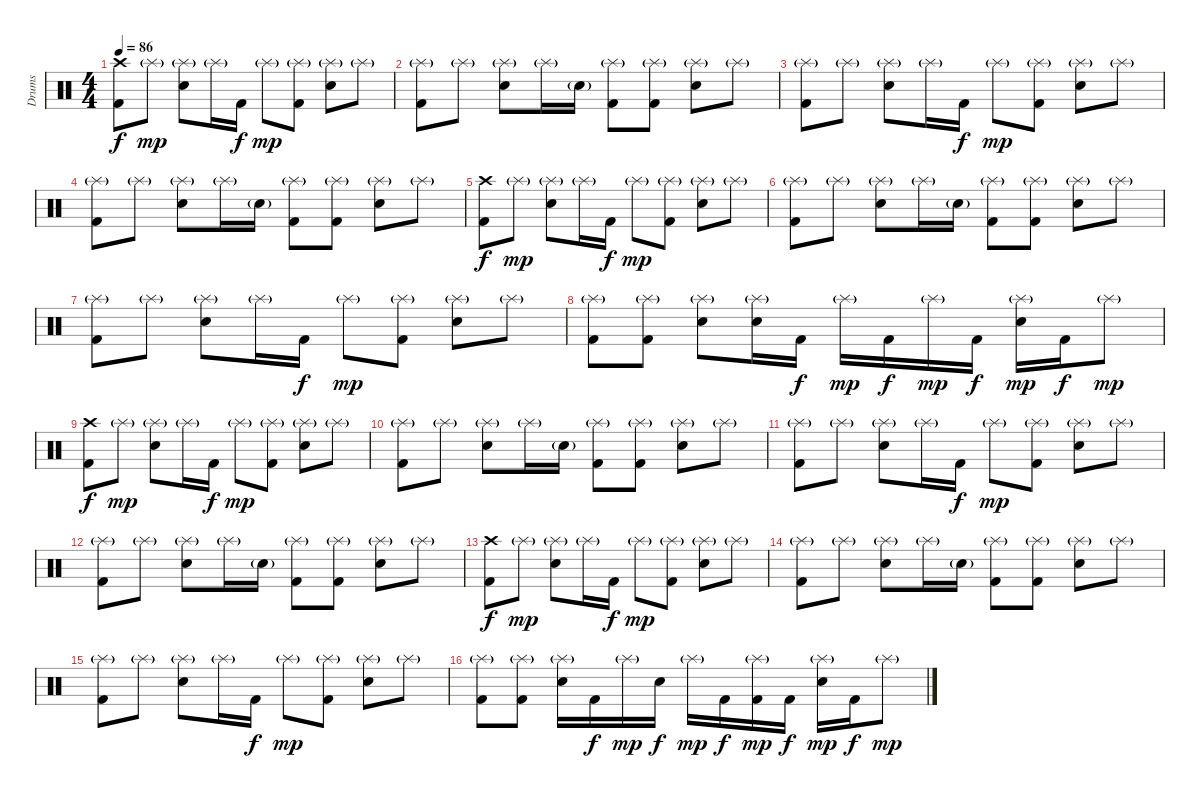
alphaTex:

\track ("Drums" "Drums") {instrument percussion}
\staff {score}
\articulation defaults
\ts (4 4)
\tempo 86
\clef neutral
\ks c
("Crash high (hit)" "Kick (hit) 2").8{dy f} "Splash (hit)"{g}.8{dy mp} ("Splash (hit)"{g} "Snare (hit) 2").8 "Splash (hit)"{g}.16 "Kick (hit) 2".16{dy f} "Splash (hit)"{g}.8{dy mp} ("Splash (hit)"{g} "Kick (hit) 2").8 ("Splash (hit)"{g} "Snare (hit) 2").8 "Splash (hit)"{g}.8 |
("Splash (hit)"{g} "Kick (hit) 2").8 "Splash (hit)"{g}.8 ("Splash (hit)"{g} "Snare (hit) 2").8 "Splash (hit)"{g}.16 "Snare (hit) 2"{g}.16 ("Splash (hit)"{g} "Kick (hit) 2").8 ("Splash (hit)"{g} "Kick (hit) 2").8 ("Splash (hit)"{g} "Snare (hit) 2").8 "Splash (hit)"{g}.8 |
("Splash (hit)"{g} "Kick (hit) 2").8 "Splash (hit)"{g}.8 ("Splash (hit)"{g} "Snare (hit) 2").8 "Splash (hit)"{g}.16 "Kick (hit) 2".16{dy f} "Splash (hit)"{g}.8{dy mp} ("Splash (hit)"{g} "Kick (hit) 2").8 ("Splash (hit)"{g} "Snare (hit) 2").8 "Splash (hit)"{g}.8 |
("Splash (hit)"{g} "Kick (hit) 2").8 "Splash (hit)"{g}.8 ("Splash (hit)"{g} "Snare (hit) 2").8 "Splash (hit)"{g}.16 "Snare (hit) 2"{g}.16 ("Splash (hit)"{g} "Kick (hit) 2").8 ("Splash (hit)"{g} "Kick (hit) 2").8 ("Splash (hit)"{g} "Snare (hit) 2").8 "Splash (hit)"{g}.8 |
("Crash high (hit)" "Kick (hit) 2").8{dy f} "Splash (hit)"{g}.8{dy mp} ("Splash (hit)"{g} "Snare (hit) 2").8 "Splash (hit)"{g}.16 "Kick (hit) 2".16{dy f} "Splash (hit)"{g}.8{dy mp} ("Splash (hit)"{g} "Kick (hit) 2").8 ("Splash (hit)"{g} "Snare (hit) 2").8 "Splash (hit)"{g}.8 |
("Splash (hit)"{g} "Kick (hit) 2").8 "Splash (hit)"{g}.8 ("Splash (hit)"{g} "Snare (hit) 2").8 "Splash (hit)"{g}.16 "Snare (hit) 2"{g}.16 ("Splash (hit)"{g} "Kick (hit) 2").8 ("Splash (hit)"{g} "Kick (hit) 2").8 ("Splash (hit)"{g} "Snare (hit) 2").8 "Splash (hit)"{g}.8 |
("Splash (hit)"{g} "Kick (hit) 2").8 "Splash (hit)"{g}.8 ("Splash (hit)"{g} "Snare (hit) 2").8 "Splash (hit)"{g}.16 "Kick (hit) 2".16{dy f} "Splash (hit)"{g}.8{dy mp} ("Splash (hit)"{g} "Kick (hit) 2").8 ("Splash (hit)"{g} "Snare (hit) 2").8 "Splash (hit)"{g}.8 |
("Splash (hit)"{g} "Kick (hit) 2").8 ("Splash (hit)"{g} "Kick (hit) 2").8 ("Splash (hit)"{g} "Snare (hit) 2").8 ("Splash (hit)"{g} "Snare (hit) 2").16 "Kick (hit) 2".16{dy f} "Splash (hit)"{g}.16{dy mp} "Kick (hit) 2".16{dy f} "Splash (hit)"{g}.16{dy mp} "Kick (hit) 2".16{dy f} ("Splash (hit)"{g} "Snare (hit) 2").16{dy mp} "Kick (hit) 2".16{dy f} "Splash (hit)"{g}.8{dy mp} |
("Crash high (hit)" "Kick (hit) 2").8{dy f} "Splash (hit)"{g}.8{dy mp} ("Splash (hit)"{g} "Snare (hit) 2").8 "Splash (hit)"{g}.16 "Kick (hit) 2".16{dy f} "Splash (hit)"{g}.8{dy mp} ("Splash (hit)"{g} "Kick (hit) 2").8 ("Splash (hit)"{g} "Snare (hit) 2").8 "Splash (hit)"{g}.8 |
("Splash (hit)"{g} "Kick (hit) 2").8 "Splash (hit)"{g}.8 ("Splash (hit)"{g} "Snare (hit) 2").8 "Splash (hit)"{g}.16 "Snare (hit) 2"{g}.16 ("Splash (hit)"{g} "Kick (hit) 2").8 ("Splash (hit)"{g} "Kick (hit) 2").8 ("Splash (hit)"{g} "Snare (hit) 2").8 "Splash (hit)"{g}.8 |
("Splash (hit)"{g} "Kick (hit) 2").8 "Splash (hit)"{g}.8 ("Splash (hit)"{g} "Snare (hit) 2").8 "Splash (hit)"{g}.16 "Kick (hit) 2".16{dy f} "Splash (hit)"{g}.8{dy mp} ("Splash (hit)"{g} "Kick (hit) 2").8 ("Splash (hit)"{g} "Snare (hit) 2").8 "Splash (hit)"{g}.8 |
("Splash (hit)"{g} "Kick (hit) 2").8 "Splash (hit)"{g}.8 ("Splash (hit)"{g} "Snare (hit) 2").8 "Splash (hit)"{g}.16 "Snare (hit) 2"{g}.16 ("Splash (hit)"{g} "Kick (hit) 2").8 ("Splash (hit)"{g} "Kick (hit) 2").8 ("Splash (hit)"{g} "Snare (hit) 2").8 "Splash (hit)"{g}.8 |
("Crash high (hit)" "Kick (hit) 2").8{dy f} "Splash (hit)"{g}.8{dy mp} ("Splash (hit)"{g} "Snare (hit) 2").8 "Splash (hit)"{g}.16 "Kick (hit) 2".16{dy f} "Splash (hit)"{g}.8{dy mp} ("Splash (hit)"{g} "Kick (hit) 2").8 ("Splash (hit)"{g} "Snare (hit) 2").8 "Splash (hit)"{g}.8 |
("Splash (hit)"{g} "Kick (hit) 2").8 "Splash (hit)"{g}.8 ("Splash (hit)"{g} "Snare (hit) 2").8 "Splash (hit)"{g}.16 "Snare (hit) 2"{g}.16 ("Splash (hit)"{g} "Kick (hit) 2").8 ("Splash (hit)"{g} "Kick (hit) 2").8 ("Splash (hit)"{g} "Snare (hit) 2").8 "Splash (hit)"{g}.8 |
("Splash (hit)"{g} "Kick (hit) 2").8 "Splash (hit)"{g}.8 ("Splash (hit)"{g} "Snare (hit) 2").8 "Splash (hit)"{g}.16 "Kick (hit) 2".16{dy f} "Splash (hit)"{g}.8{dy mp} ("Splash (hit)"{g} "Kick (hit) 2").8 ("Splash (hit)"{g} "Snare (hit) 2").8 "Splash (hit)"{g}.8 |
("Splash (hit)"{g} "Kick (hit) 2").8 ("Splash (hit)"{g} "Kick (hit) 2").8 ("Splash (hit)"{g} "Snare (hit) 2").16 "Kick (hit) 2".16{dy f} "Splash (hit)"{g}.16{dy mp} "Snare (hit) 2".16{dy f} "Splash (hit)"{g}.16{dy mp} "Kick (hit) 2".16{dy f} ("Splash (hit)"{g} "Kick (hit) 2").16{dy mp} "Kick (hit) 2".16{dy f} ("Splash (hit)"{g} "Snare (hit) 2").16{dy mp} "Kick (hit) 2".16{dy f} "Splash (hit)"{g}.8{dy mp}
